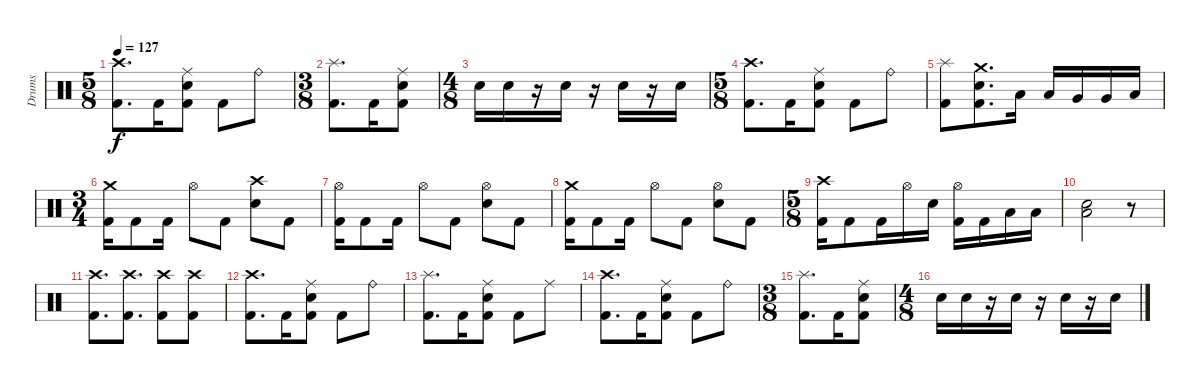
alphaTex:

\track ("Drums" "Drums") {instrument percussion}
\staff {score}
\articulation defaults
\ts (5 8)
\tempo 127
\clef neutral
\ks c
("Crash high (hit)" "Kick (hit) 2").8{d dy f} "Kick (hit) 2".16 ("Ride (middle)" "Electric Snare (hit)" "Kick (hit) 2").8 "Kick (hit) 2".8 "Ride (bell)".8 |
\ts (3 8)
("Splash (hit)" "Kick (hit) 2").8{d} "Kick (hit) 2".16 ("Ride (middle)" "Electric Snare (hit)" "Kick (hit) 2").8 |
\ts (4 8)
"Electric Snare (hit)".16 "Electric Snare (hit)".16 r.16 "Electric Snare (hit)".16 r.16 "Electric Snare (hit)".16 r.16 "Electric Snare (hit)".16 |
\ts (5 8)
("Crash high (hit)" "Kick (hit) 2").8{d} "Kick (hit) 2".16 ("Ride (middle)" "Electric Snare (hit)" "Kick (hit) 2").8 "Kick (hit) 2".8 "Ride (bell)".8 |
("Splash (hit)" "Kick (hit) 2").8 ("Crash medium (hit)" "Electric Snare (hit)" "Kick (hit) 2").8{d} "Low Tom (hit)".16 "Low Tom (hit)".16 "Very Low Tom (hit)".16 "Very Low Tom (hit)".16 "Low Floor Tom (hit)".16 |
\ts (3 4)
("Kick (hit) 2" "Crash medium (hit)").16 "Kick (hit) 2".8 "Kick (hit) 2".16 "Hi-Hat (open)".8 "Kick (hit) 2".8 ("Electric Snare (hit)" "Crash high (hit)").8 "Kick (hit) 2".8 |
("Kick (hit) 2" "Hi-Hat (open)").16 "Kick (hit) 2".8 "Kick (hit) 2".16 "Hi-Hat (open)".8 "Kick (hit) 2".8 ("Electric Snare (hit)" "Hi-Hat (open)").8 "Kick (hit) 2".8 |
("Kick (hit) 2" "Crash medium (hit)").16 "Kick (hit) 2".8 "Kick (hit) 2".16 "Hi-Hat (open)".8 "Kick (hit) 2".8 ("Electric Snare (hit)" "Hi-Hat (open)").8 "Kick (hit) 2".8 |
\ts (5 8)
("Kick (hit) 2" "Crash high (hit)").16 "Kick (hit) 2".8 "Kick (hit) 2".16 "Hi-Hat (open)".16 "Electric Snare (hit)".16 ("Kick (hit) 2" "Hi-Hat (open)").16 "Kick (hit) 2".16 "Low Tom (hit)".16 "Low Tom (hit)".16 |
("Low Floor Tom (hit)" "Electric Snare (hit)").2 r.8 |
("Crash high (hit)" "Kick (hit) 2").8{d} ("Crash high (hit)" "Kick (hit) 2").8{d} ("Crash high (hit)" "Kick (hit) 2").8 ("Crash high (hit)" "Kick (hit) 2").8 |
("Crash high (hit)" "Kick (hit) 2").8{d} "Kick (hit) 2".16 ("Ride (middle)" "Electric Snare (hit)" "Kick (hit) 2").8 "Kick (hit) 2".8 "Ride (bell)".8 |
("Splash (hit)" "Kick (hit) 2").8{d} "Kick (hit) 2".16 ("Ride (middle)" "Electric Snare (hit)" "Kick (hit) 2").8 "Kick (hit) 2".8 "Ride (middle)".8 |
("Crash high (hit)" "Kick (hit) 2").8{d} "Kick (hit) 2".16 ("Ride (middle)" "Electric Snare (hit)" "Kick (hit) 2").8 "Kick (hit) 2".8 "Ride (bell)".8 |
\ts (3 8)
("Splash (hit)" "Kick (hit) 2").8{d} "Kick (hit) 2".16 ("Ride (middle)" "Electric Snare (hit)" "Kick (hit) 2").8 |
\ts (4 8)
"Electric Snare (hit)".16 "Electric Snare (hit)".16 r.16 "Electric Snare (hit)".16 r.16 "Electric Snare (hit)".16 r.16 "Electric Snare (hit)".16
